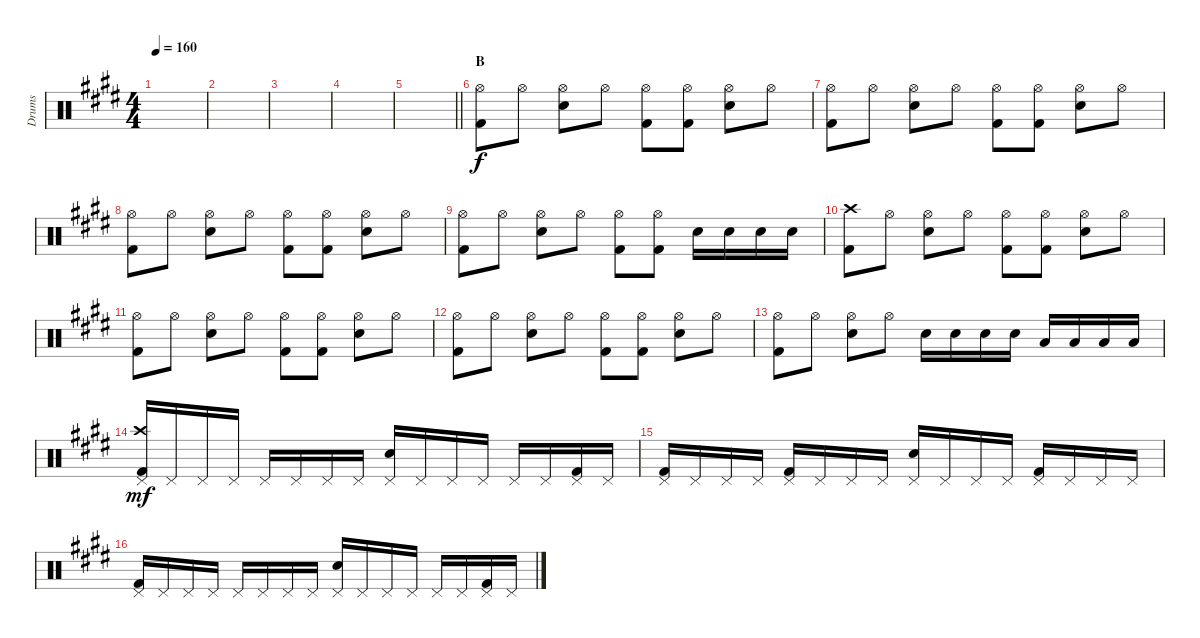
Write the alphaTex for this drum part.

\track ("Drums" "Drums") {instrument percussion}
\staff {score}
\articulation defaults
\ts (4 4)
\tempo 160
\clef neutral
\ks e
|
|
|
|
\barLineRight lightlight
|
\section ("" "B")
("Hi-Hat (open)" "Kick (hit) 2").8{dy f} "Hi-Hat (open)".8 ("Hi-Hat (open)" "Snare (hit) 2").8 "Hi-Hat (open)".8 ("Hi-Hat (open)" "Kick (hit) 2").8 ("Hi-Hat (open)" "Kick (hit) 2").8 ("Hi-Hat (open)" "Snare (hit) 2").8 "Hi-Hat (open)".8 |
("Hi-Hat (open)" "Kick (hit) 2").8 "Hi-Hat (open)".8 ("Hi-Hat (open)" "Snare (hit) 2").8 "Hi-Hat (open)".8 ("Hi-Hat (open)" "Kick (hit) 2").8 ("Hi-Hat (open)" "Kick (hit) 2").8 ("Hi-Hat (open)" "Snare (hit) 2").8 "Hi-Hat (open)".8 |
("Hi-Hat (open)" "Kick (hit) 2").8 "Hi-Hat (open)".8 ("Hi-Hat (open)" "Snare (hit) 2").8 "Hi-Hat (open)".8 ("Hi-Hat (open)" "Kick (hit) 2").8 ("Hi-Hat (open)" "Kick (hit) 2").8 ("Hi-Hat (open)" "Snare (hit) 2").8 "Hi-Hat (open)".8 |
("Hi-Hat (open)" "Kick (hit) 2").8 "Hi-Hat (open)".8 ("Hi-Hat (open)" "Snare (hit) 2").8 "Hi-Hat (open)".8 ("Hi-Hat (open)" "Kick (hit) 2").8 ("Hi-Hat (open)" "Kick (hit) 2").8 "Snare (hit) 2".16 "Snare (hit) 2".16 "Snare (hit) 2".16 "Snare (hit) 2".16 |
("Crash high (hit)" "Kick (hit) 2").8 "Hi-Hat (open)".8 ("Hi-Hat (open)" "Snare (hit) 2").8 "Hi-Hat (open)".8 ("Hi-Hat (open)" "Kick (hit) 2").8 ("Hi-Hat (open)" "Kick (hit) 2").8 ("Hi-Hat (open)" "Snare (hit) 2").8 "Hi-Hat (open)".8 |
("Hi-Hat (open)" "Kick (hit) 2").8 "Hi-Hat (open)".8 ("Hi-Hat (open)" "Snare (hit) 2").8 "Hi-Hat (open)".8 ("Hi-Hat (open)" "Kick (hit) 2").8 ("Hi-Hat (open)" "Kick (hit) 2").8 ("Hi-Hat (open)" "Snare (hit) 2").8 "Hi-Hat (open)".8 |
("Hi-Hat (open)" "Kick (hit) 2").8 "Hi-Hat (open)".8 ("Hi-Hat (open)" "Snare (hit) 2").8 "Hi-Hat (open)".8 ("Hi-Hat (open)" "Kick (hit) 2").8 ("Hi-Hat (open)" "Kick (hit) 2").8 ("Hi-Hat (open)" "Snare (hit) 2").8 "Hi-Hat (open)".8 |
("Hi-Hat (open)" "Kick (hit) 2").8 "Hi-Hat (open)".8 ("Hi-Hat (open)" "Snare (hit) 2").8 "Hi-Hat (open)".8 "Snare (hit) 2".16 "Snare (hit) 2".16 "Snare (hit) 2".16 "Snare (hit) 2".16 "Low Tom (hit)".16 "Low Tom (hit)".16 "Low Tom (hit)".16 "Low Tom (hit)".16 |
("Pedal Hi-Hat (hit)" "Crash high (hit)" "Kick (hit) 2").16{dy mf} "Pedal Hi-Hat (hit)".16 "Pedal Hi-Hat (hit)".16 "Pedal Hi-Hat (hit)".16 "Pedal Hi-Hat (hit)".16 "Pedal Hi-Hat (hit)".16 "Pedal Hi-Hat (hit)".16 "Pedal Hi-Hat (hit)".16 ("Pedal Hi-Hat (hit)" "Snare (hit) 2").16 "Pedal Hi-Hat (hit)".16 "Pedal Hi-Hat (hit)".16 "Pedal Hi-Hat (hit)".16 "Pedal Hi-Hat (hit)".16 "Pedal Hi-Hat (hit)".16 ("Pedal Hi-Hat (hit)" "Kick (hit) 2").16 "Pedal Hi-Hat (hit)".16 |
("Pedal Hi-Hat (hit)" "Kick (hit) 2").16 "Pedal Hi-Hat (hit)".16 "Pedal Hi-Hat (hit)".16 "Pedal Hi-Hat (hit)".16 ("Pedal Hi-Hat (hit)" "Kick (hit) 2").16 "Pedal Hi-Hat (hit)".16 "Pedal Hi-Hat (hit)".16 "Pedal Hi-Hat (hit)".16 ("Pedal Hi-Hat (hit)" "Snare (hit) 2").16 "Pedal Hi-Hat (hit)".16 "Pedal Hi-Hat (hit)".16 "Pedal Hi-Hat (hit)".16 ("Pedal Hi-Hat (hit)" "Kick (hit) 2").16 "Pedal Hi-Hat (hit)".16 "Pedal Hi-Hat (hit)".16 "Pedal Hi-Hat (hit)".16 |
("Pedal Hi-Hat (hit)" "Kick (hit) 2").16 "Pedal Hi-Hat (hit)".16 "Pedal Hi-Hat (hit)".16 "Pedal Hi-Hat (hit)".16 "Pedal Hi-Hat (hit)".16 "Pedal Hi-Hat (hit)".16 "Pedal Hi-Hat (hit)".16 "Pedal Hi-Hat (hit)".16 ("Pedal Hi-Hat (hit)" "Snare (hit) 2").16 "Pedal Hi-Hat (hit)".16 "Pedal Hi-Hat (hit)".16 "Pedal Hi-Hat (hit)".16 "Pedal Hi-Hat (hit)".16 "Pedal Hi-Hat (hit)".16 ("Pedal Hi-Hat (hit)" "Kick (hit) 2").16 "Pedal Hi-Hat (hit)".16
